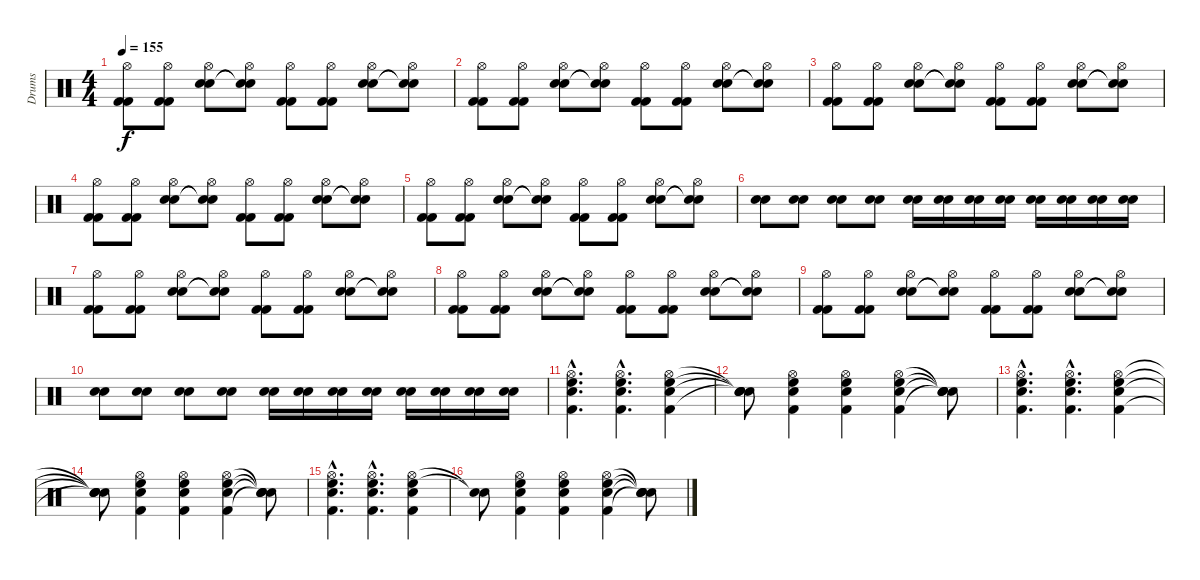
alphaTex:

\track ("Drums" "Drums") {instrument percussion}
\staff {score}
\articulation defaults
\ts (4 4)
\tempo 155
\clef neutral
\ks c
("Hi-Hat (open)" "Kick (hit) 2" "Kick (hit) 2").8{dy f} ("Hi-Hat (open)" "Kick (hit) 2" "Kick (hit) 2").8 ("Hi-Hat (open)" "Electric Snare (hit)" "Electric Snare (hit)").8 ("Hi-Hat (open)" "Snare (hit)"{t} "Snare (hit)"{t}).8 ("Hi-Hat (open)" "Kick (hit) 2" "Kick (hit) 2").8 ("Hi-Hat (open)" "Kick (hit) 2" "Kick (hit) 2").8 ("Hi-Hat (open)" "Electric Snare (hit)" "Electric Snare (hit)").8 ("Hi-Hat (open)" "Snare (hit)"{t} "Snare (hit)"{t}).8 |
("Hi-Hat (open)" "Kick (hit) 2" "Kick (hit) 2").8 ("Hi-Hat (open)" "Kick (hit) 2" "Kick (hit) 2").8 ("Hi-Hat (open)" "Electric Snare (hit)" "Electric Snare (hit)").8 ("Hi-Hat (open)" "Snare (hit)"{t} "Snare (hit)"{t}).8 ("Hi-Hat (open)" "Kick (hit) 2" "Kick (hit) 2").8 ("Hi-Hat (open)" "Kick (hit) 2" "Kick (hit) 2").8 ("Hi-Hat (open)" "Electric Snare (hit)" "Electric Snare (hit)").8 ("Hi-Hat (open)" "Snare (hit)"{t} "Snare (hit)"{t}).8 |
("Hi-Hat (open)" "Kick (hit) 2" "Kick (hit) 2").8 ("Hi-Hat (open)" "Kick (hit) 2" "Kick (hit) 2").8 ("Hi-Hat (open)" "Electric Snare (hit)" "Electric Snare (hit)").8 ("Hi-Hat (open)" "Snare (hit)"{t} "Snare (hit)"{t}).8 ("Hi-Hat (open)" "Kick (hit) 2" "Kick (hit) 2").8 ("Hi-Hat (open)" "Kick (hit) 2" "Kick (hit) 2").8 ("Hi-Hat (open)" "Electric Snare (hit)" "Electric Snare (hit)").8 ("Hi-Hat (open)" "Snare (hit)"{t} "Snare (hit)"{t}).8 |
("Hi-Hat (open)" "Kick (hit) 2" "Kick (hit) 2").8 ("Hi-Hat (open)" "Kick (hit) 2" "Kick (hit) 2").8 ("Hi-Hat (open)" "Electric Snare (hit)" "Electric Snare (hit)").8 ("Hi-Hat (open)" "Snare (hit)"{t} "Snare (hit)"{t}).8 ("Hi-Hat (open)" "Kick (hit) 2" "Kick (hit) 2").8 ("Hi-Hat (open)" "Kick (hit) 2" "Kick (hit) 2").8 ("Hi-Hat (open)" "Electric Snare (hit)" "Electric Snare (hit)").8 ("Hi-Hat (open)" "Snare (hit)"{t} "Snare (hit)"{t}).8 |
("Hi-Hat (open)" "Kick (hit) 2" "Kick (hit) 2").8 ("Hi-Hat (open)" "Kick (hit) 2" "Kick (hit) 2").8 ("Hi-Hat (open)" "Electric Snare (hit)" "Electric Snare (hit)").8 ("Hi-Hat (open)" "Snare (hit)"{t} "Snare (hit)"{t}).8 ("Hi-Hat (open)" "Kick (hit) 2" "Kick (hit) 2").8 ("Hi-Hat (open)" "Kick (hit) 2" "Kick (hit) 2").8 ("Hi-Hat (open)" "Electric Snare (hit)" "Electric Snare (hit)").8 ("Hi-Hat (open)" "Snare (hit)"{t} "Snare (hit)"{t}).8 |
("Electric Snare (hit)" "Electric Snare (hit)").8 ("Electric Snare (hit)" "Electric Snare (hit)").8 ("Electric Snare (hit)" "Electric Snare (hit)").8 ("Electric Snare (hit)" "Electric Snare (hit)").8 ("Electric Snare (hit)" "Electric Snare (hit)").16 ("Electric Snare (hit)" "Electric Snare (hit)").16 ("Electric Snare (hit)" "Electric Snare (hit)").16 ("Electric Snare (hit)" "Electric Snare (hit)").16 ("Electric Snare (hit)" "Electric Snare (hit)").16 ("Electric Snare (hit)" "Electric Snare (hit)").16 ("Electric Snare (hit)" "Electric Snare (hit)").16 ("Electric Snare (hit)" "Electric Snare (hit)").16 |
("Hi-Hat (open)" "Kick (hit) 2" "Kick (hit) 2").8 ("Hi-Hat (open)" "Kick (hit) 2" "Kick (hit) 2").8 ("Hi-Hat (open)" "Electric Snare (hit)" "Electric Snare (hit)").8 ("Hi-Hat (open)" "Snare (hit)"{t} "Snare (hit)"{t}).8 ("Hi-Hat (open)" "Kick (hit) 2" "Kick (hit) 2").8 ("Hi-Hat (open)" "Kick (hit) 2" "Kick (hit) 2").8 ("Hi-Hat (open)" "Electric Snare (hit)" "Electric Snare (hit)").8 ("Hi-Hat (open)" "Snare (hit)"{t} "Snare (hit)"{t}).8 |
("Hi-Hat (open)" "Kick (hit) 2" "Kick (hit) 2").8 ("Hi-Hat (open)" "Kick (hit) 2" "Kick (hit) 2").8 ("Hi-Hat (open)" "Electric Snare (hit)" "Electric Snare (hit)").8 ("Hi-Hat (open)" "Snare (hit)"{t} "Snare (hit)"{t}).8 ("Hi-Hat (open)" "Kick (hit) 2" "Kick (hit) 2").8 ("Hi-Hat (open)" "Kick (hit) 2" "Kick (hit) 2").8 ("Hi-Hat (open)" "Electric Snare (hit)" "Electric Snare (hit)").8 ("Hi-Hat (open)" "Snare (hit)"{t} "Snare (hit)"{t}).8 |
("Hi-Hat (open)" "Kick (hit) 2" "Kick (hit) 2").8 ("Hi-Hat (open)" "Kick (hit) 2" "Kick (hit) 2").8 ("Hi-Hat (open)" "Electric Snare (hit)" "Electric Snare (hit)").8 ("Hi-Hat (open)" "Snare (hit)"{t} "Snare (hit)"{t}).8 ("Hi-Hat (open)" "Kick (hit) 2" "Kick (hit) 2").8 ("Hi-Hat (open)" "Kick (hit) 2" "Kick (hit) 2").8 ("Hi-Hat (open)" "Electric Snare (hit)" "Electric Snare (hit)").8 ("Hi-Hat (open)" "Snare (hit)"{t} "Snare (hit)"{t}).8 |
("Electric Snare (hit)" "Electric Snare (hit)").8 ("Electric Snare (hit)" "Electric Snare (hit)").8 ("Electric Snare (hit)" "Electric Snare (hit)").8 ("Electric Snare (hit)" "Electric Snare (hit)").8 ("Electric Snare (hit)" "Electric Snare (hit)").16 ("Electric Snare (hit)" "Electric Snare (hit)").16 ("Electric Snare (hit)" "Electric Snare (hit)").16 ("Electric Snare (hit)" "Electric Snare (hit)").16 ("Electric Snare (hit)" "Electric Snare (hit)").16 ("Electric Snare (hit)" "Electric Snare (hit)").16 ("Electric Snare (hit)" "Electric Snare (hit)").16 ("Electric Snare (hit)" "Electric Snare (hit)").16 |
("Hi-Hat (open)"{hac} "High Floor Tom (hit)"{hac} "Electric Snare (hit)"{hac} "Kick (hit) 2"{hac}).4{d} ("Hi-Hat (open)"{hac} "High Floor Tom (hit)"{hac} "Electric Snare (hit)"{hac} "Kick (hit) 2"{hac}).4{d} ("Hi-Hat (open)" "High Floor Tom (hit)" "Electric Snare (hit)" "Kick (hit) 2").4 |
("Snare (hit)"{t} "Snare (hit)"{t} "Snare (hit)"{t} "Snare (hit)"{t}).8 ("Hi-Hat (open)" "High Floor Tom (hit)" "Electric Snare (hit)" "Kick (hit) 2").4 ("Hi-Hat (open)" "High Floor Tom (hit)" "Electric Snare (hit)" "Kick (hit) 2").4 ("Hi-Hat (open)" "High Floor Tom (hit)" "Electric Snare (hit)" "Kick (hit) 2").4 ("Snare (hit)"{t} "Snare (hit)"{t} "Snare (hit)"{t} "Snare (hit)"{t}).8 |
("Hi-Hat (open)"{hac} "High Floor Tom (hit)"{hac} "Electric Snare (hit)"{hac} "Kick (hit) 2"{hac}).4{d} ("Hi-Hat (open)"{hac} "High Floor Tom (hit)"{hac} "Electric Snare (hit)"{hac} "Kick (hit) 2"{hac}).4{d} ("Hi-Hat (open)" "High Floor Tom (hit)" "Electric Snare (hit)" "Kick (hit) 2").4 |
("Snare (hit)"{t} "Snare (hit)"{t} "Snare (hit)"{t} "Snare (hit)"{t}).8 ("Hi-Hat (open)" "High Floor Tom (hit)" "Electric Snare (hit)" "Kick (hit) 2").4 ("Hi-Hat (open)" "High Floor Tom (hit)" "Electric Snare (hit)" "Kick (hit) 2").4 ("Hi-Hat (open)" "High Floor Tom (hit)" "Electric Snare (hit)" "Kick (hit) 2").4 ("Snare (hit)"{t} "Snare (hit)"{t} "Snare (hit)"{t} "Snare (hit)"{t}).8 |
("Hi-Hat (open)"{hac} "High Floor Tom (hit)"{hac} "Electric Snare (hit)"{hac} "Kick (hit) 2"{hac}).4{d} ("Hi-Hat (open)"{hac} "High Floor Tom (hit)"{hac} "Electric Snare (hit)"{hac} "Kick (hit) 2"{hac}).4{d} ("Hi-Hat (open)" "High Floor Tom (hit)" "Electric Snare (hit)" "Kick (hit) 2").4 |
("Snare (hit)"{t} "Snare (hit)"{t}).8 ("Hi-Hat (open)" "High Floor Tom (hit)" "Electric Snare (hit)" "Kick (hit) 2").4 ("Hi-Hat (open)" "High Floor Tom (hit)" "Electric Snare (hit)" "Kick (hit) 2").4 ("Hi-Hat (open)" "High Floor Tom (hit)" "Electric Snare (hit)" "Kick (hit) 2").4 ("Snare (hit)"{t} "Snare (hit)"{t} "Snare (hit)"{t} "Snare (hit)"{t}).8
